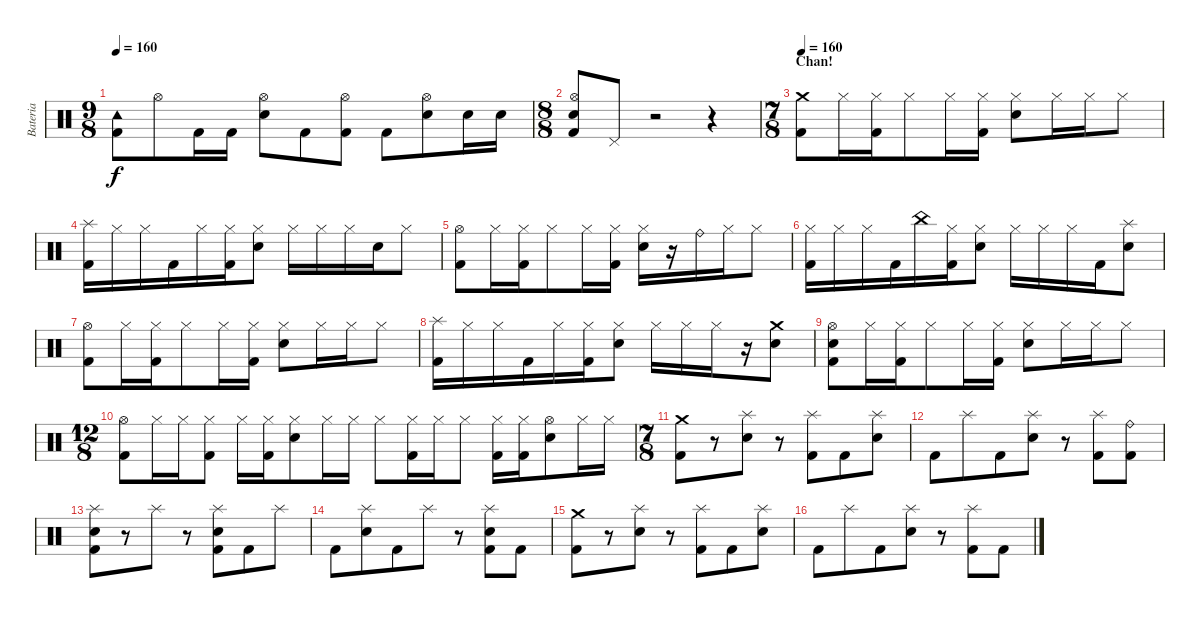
\track ("Bateria" "Bateria") {instrument percussion}
\staff {score}
\articulation defaults
\ts (9 8)
\tempo 160
\clef neutral
\ks c
("Tambourine (hit)" "Kick (hit) 2").8{dy f} "Hi-Hat (open)".8 "Kick (hit) 2".16 "Kick (hit) 2".16 ("Hi-Hat (open)" "Electric Snare (hit)").8 "Kick (hit) 2".8 ("Hi-Hat (open)" "Kick (hit) 2").8 "Kick (hit) 2".8 ("Hi-Hat (open)" "Electric Snare (hit)").8 "Electric Snare (hit)".16 "Electric Snare (hit)".16 |
\ts (8 8)
("Hi-Hat (open)" "Electric Snare (hit)" "Kick (hit) 2").8 "Pedal Hi-Hat (hit)".8 r.2 r.4 |
\ts (7 8)
\section ("" "Chan!")
\tempo 160
("Crash medium (hit)" "Kick (hit) 2").8 "Hi-Hat (closed)".16 ("Hi-Hat (closed)" "Kick (hit) 2").16 "Hi-Hat (closed)".8 "Hi-Hat (closed)".16 ("Hi-Hat (closed)" "Kick (hit) 2").16 ("Hi-Hat (closed)" "Electric Snare (hit)").8 "Hi-Hat (closed)".16 "Hi-Hat (closed)".16 "Hi-Hat (closed)".8 |
("Splash (hit)" "Kick (hit) 2").16 "Hi-Hat (closed)".16 "Hi-Hat (closed)".16 "Kick (hit) 2".16 "Hi-Hat (closed)".16 ("Hi-Hat (closed)" "Kick (hit) 2").16 ("Hi-Hat (closed)" "Electric Snare (hit)").8 "Hi-Hat (closed)".16 "Hi-Hat (closed)".16 "Hi-Hat (closed)".16 "Electric Snare (hit)".16 "Hi-Hat (closed)".8 |
("Hi-Hat (open)" "Kick (hit) 2").8 "Hi-Hat (closed)".16 ("Hi-Hat (closed)" "Kick (hit) 2").16 "Hi-Hat (closed)".8 "Hi-Hat (closed)".16 ("Hi-Hat (closed)" "Kick (hit) 2").16 ("Hi-Hat (closed)" "Electric Snare (hit)").16 r.16 "Ride (bell)".16 "Hi-Hat (closed)".16 "Hi-Hat (closed)".8 |
("Hi-Hat (closed)" "Kick (hit) 2").16 "Hi-Hat (closed)".16 "Hi-Hat (closed)".16 "Kick (hit) 2".16 "China (hit)".16 ("Hi-Hat (closed)" "Kick (hit) 2").16 ("Hi-Hat (closed)" "Electric Snare (hit)").8 "Hi-Hat (closed)".16 "Hi-Hat (closed)".16 "Hi-Hat (closed)".16 "Kick (hit) 2".16 ("Splash (hit)" "Electric Snare (hit)").8 |
("Hi-Hat (open)" "Kick (hit) 2").8 "Hi-Hat (closed)".16 ("Hi-Hat (closed)" "Kick (hit) 2").16 "Hi-Hat (closed)".8 "Hi-Hat (closed)".16 ("Hi-Hat (closed)" "Kick (hit) 2").16 ("Hi-Hat (closed)" "Electric Snare (hit)").8 "Hi-Hat (closed)".16 "Hi-Hat (closed)".16 "Hi-Hat (closed)".8 |
("Splash (hit)" "Kick (hit) 2").16 "Hi-Hat (closed)".16 "Hi-Hat (closed)".16 "Kick (hit) 2".16 "Hi-Hat (closed)".16 ("Hi-Hat (closed)" "Kick (hit) 2").16 ("Hi-Hat (closed)" "Electric Snare (hit)").8 "Hi-Hat (closed)".16 "Hi-Hat (closed)".16 "Hi-Hat (closed)".16 r.16 ("Crash medium (hit)" "Electric Snare (hit)").8 |
("Hi-Hat (open)" "Electric Snare (hit)" "Kick (hit) 2").8 "Hi-Hat (closed)".16 ("Hi-Hat (closed)" "Kick (hit) 2").16 "Hi-Hat (closed)".8 "Hi-Hat (closed)".16 ("Hi-Hat (closed)" "Kick (hit) 2").16 ("Hi-Hat (closed)" "Electric Snare (hit)").8 "Hi-Hat (closed)".16 "Hi-Hat (closed)".16 "Hi-Hat (closed)".8 |
\ts (12 8)
("Hi-Hat (open)" "Kick (hit) 2").8 "Hi-Hat (closed)".16 "Hi-Hat (closed)".16 ("Hi-Hat (closed)" "Kick (hit) 2").8 "Hi-Hat (closed)".16 ("Hi-Hat (closed)" "Kick (hit) 2").16 ("Hi-Hat (closed)" "Electric Snare (hit)").8 "Hi-Hat (closed)".16 "Hi-Hat (closed)".16 "Hi-Hat (closed)".8 ("Hi-Hat (closed)" "Kick (hit) 2").16 "Hi-Hat (closed)".16 "Hi-Hat (closed)".8 ("Hi-Hat (closed)" "Kick (hit) 2").16 ("Hi-Hat (closed)" "Kick (hit) 2").16 ("Hi-Hat (open)" "Electric Snare (hit)").8 "Hi-Hat (closed)".16 "Hi-Hat (closed)".16 |
\ts (7 8)
("Crash medium (hit)" "Kick (hit) 2").8 r.8 ("Splash (hit)" "Electric Snare (hit)").8 r.8 ("Splash (hit)" "Kick (hit) 2").8 "Kick (hit) 2".8 ("Splash (hit)" "Electric Snare (hit)").8 |
"Kick (hit) 2".8 "Splash (hit)".8 "Kick (hit) 2".8 ("Splash (hit)" "Electric Snare (hit)").8 r.8 ("Splash (hit)" "Kick (hit) 2").8 ("Ride (bell)" "Kick (hit) 2").8 |
("Splash (hit)" "Electric Snare (hit)" "Kick (hit) 2").8 r.8 "Splash (hit)".8 r.8 ("Splash (hit)" "Electric Snare (hit)" "Kick (hit) 2").8 "Kick (hit) 2".8 "Splash (hit)".8 |
"Kick (hit) 2".8 ("Splash (hit)" "Electric Snare (hit)").8 "Kick (hit) 2".8 "Splash (hit)".8 r.8 ("Splash (hit)" "Electric Snare (hit)" "Kick (hit) 2").8 "Kick (hit) 2".8 |
("Crash medium (hit)" "Kick (hit) 2").8 r.8 ("Splash (hit)" "Electric Snare (hit)").8 r.8 ("Splash (hit)" "Kick (hit) 2").8 "Kick (hit) 2".8 ("Splash (hit)" "Electric Snare (hit)").8 |
"Kick (hit) 2".8 "Splash (hit)".8 "Kick (hit) 2".8 ("Splash (hit)" "Electric Snare (hit)").8 r.8 ("Splash (hit)" "Kick (hit) 2").8 "Kick (hit) 2".8
